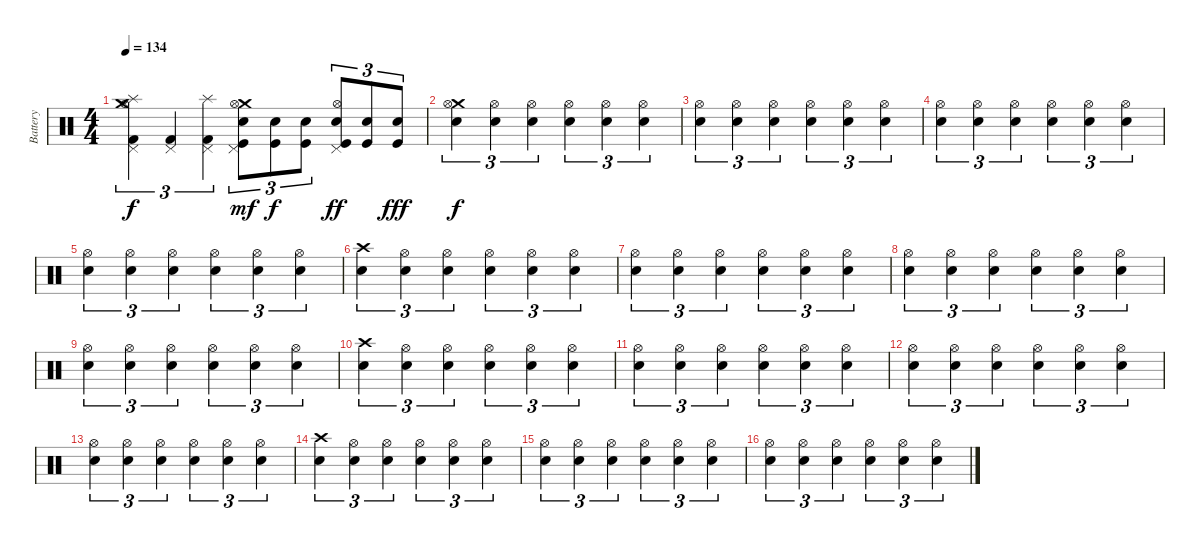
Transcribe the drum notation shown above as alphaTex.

\track ("Battery" "Battery") {instrument percussion}
\staff {score}
\articulation defaults
\ts (4 4)
\tempo 134
\clef neutral
\ks c
("Crash medium (hit)" "Pedal Hi-Hat (hit)" "Hi-Hat (open)" "Kick (hit) 2" "Splash (hit)").4{tu (3 2) dy f} ("Pedal Hi-Hat (hit)" "Kick (hit) 2").4{tu (3 2)} ("Pedal Hi-Hat (hit)" "Kick (hit) 2" "Splash (hit)").4{tu (3 2)} ("Crash medium (hit)" "Pedal Hi-Hat (hit)" "Kick (hit)" "Hi-Hat (open)" "Electric Snare (hit)").8{tu (3 2) dy mf} ("Kick (hit)" "Electric Snare (hit)").8{tu (3 2) dy f} ("Kick (hit)" "Electric Snare (hit)").8{tu (3 2)} ("Pedal Hi-Hat (hit)" "Kick (hit)" "Hi-Hat (open)" "Electric Snare (hit)").8{tu (3 2) dy ff} ("Kick (hit)" "Electric Snare (hit)").8{tu (3 2)} ("Kick (hit)" "Electric Snare (hit)").8{tu (3 2) dy fff} |
("Electric Snare (hit)" "Crash medium (hit)" "Hi-Hat (open)").4{tu (3 2) dy f} ("Electric Snare (hit)" "Hi-Hat (open)").4{tu (3 2)} ("Electric Snare (hit)" "Hi-Hat (open)").4{tu (3 2)} ("Electric Snare (hit)" "Hi-Hat (open)").4{tu (3 2)} ("Electric Snare (hit)" "Hi-Hat (open)").4{tu (3 2)} ("Electric Snare (hit)" "Hi-Hat (open)").4{tu (3 2)} |
("Electric Snare (hit)" "Hi-Hat (open)").4{tu (3 2)} ("Electric Snare (hit)" "Hi-Hat (open)").4{tu (3 2)} ("Electric Snare (hit)" "Hi-Hat (open)").4{tu (3 2)} ("Electric Snare (hit)" "Hi-Hat (open)").4{tu (3 2)} ("Electric Snare (hit)" "Hi-Hat (open)").4{tu (3 2)} ("Electric Snare (hit)" "Hi-Hat (open)").4{tu (3 2)} |
("Electric Snare (hit)" "Hi-Hat (open)").4{tu (3 2)} ("Electric Snare (hit)" "Hi-Hat (open)").4{tu (3 2)} ("Electric Snare (hit)" "Hi-Hat (open)").4{tu (3 2)} ("Electric Snare (hit)" "Hi-Hat (open)").4{tu (3 2)} ("Electric Snare (hit)" "Hi-Hat (open)").4{tu (3 2)} ("Electric Snare (hit)" "Hi-Hat (open)").4{tu (3 2)} |
("Electric Snare (hit)" "Hi-Hat (open)").4{tu (3 2)} ("Electric Snare (hit)" "Hi-Hat (open)").4{tu (3 2)} ("Electric Snare (hit)" "Hi-Hat (open)").4{tu (3 2)} ("Electric Snare (hit)" "Hi-Hat (open)").4{tu (3 2)} ("Electric Snare (hit)" "Hi-Hat (open)").4{tu (3 2)} ("Electric Snare (hit)" "Hi-Hat (open)").4{tu (3 2)} |
("Electric Snare (hit)" "Crash high (hit)").4{tu (3 2)} ("Electric Snare (hit)" "Hi-Hat (open)").4{tu (3 2)} ("Electric Snare (hit)" "Hi-Hat (open)").4{tu (3 2)} ("Electric Snare (hit)" "Hi-Hat (open)").4{tu (3 2)} ("Electric Snare (hit)" "Hi-Hat (open)").4{tu (3 2)} ("Electric Snare (hit)" "Hi-Hat (open)").4{tu (3 2)} |
("Electric Snare (hit)" "Hi-Hat (open)").4{tu (3 2)} ("Electric Snare (hit)" "Hi-Hat (open)").4{tu (3 2)} ("Electric Snare (hit)" "Hi-Hat (open)").4{tu (3 2)} ("Electric Snare (hit)" "Hi-Hat (open)").4{tu (3 2)} ("Electric Snare (hit)" "Hi-Hat (open)").4{tu (3 2)} ("Electric Snare (hit)" "Hi-Hat (open)").4{tu (3 2)} |
("Electric Snare (hit)" "Hi-Hat (open)").4{tu (3 2)} ("Electric Snare (hit)" "Hi-Hat (open)").4{tu (3 2)} ("Electric Snare (hit)" "Hi-Hat (open)").4{tu (3 2)} ("Electric Snare (hit)" "Hi-Hat (open)").4{tu (3 2)} ("Electric Snare (hit)" "Hi-Hat (open)").4{tu (3 2)} ("Electric Snare (hit)" "Hi-Hat (open)").4{tu (3 2)} |
("Electric Snare (hit)" "Hi-Hat (open)").4{tu (3 2)} ("Electric Snare (hit)" "Hi-Hat (open)").4{tu (3 2)} ("Electric Snare (hit)" "Hi-Hat (open)").4{tu (3 2)} ("Electric Snare (hit)" "Hi-Hat (open)").4{tu (3 2)} ("Electric Snare (hit)" "Hi-Hat (open)").4{tu (3 2)} ("Electric Snare (hit)" "Hi-Hat (open)").4{tu (3 2)} |
("Electric Snare (hit)" "Crash high (hit)").4{tu (3 2)} ("Electric Snare (hit)" "Hi-Hat (open)").4{tu (3 2)} ("Electric Snare (hit)" "Hi-Hat (open)").4{tu (3 2)} ("Electric Snare (hit)" "Hi-Hat (open)").4{tu (3 2)} ("Electric Snare (hit)" "Hi-Hat (open)").4{tu (3 2)} ("Electric Snare (hit)" "Hi-Hat (open)").4{tu (3 2)} |
("Electric Snare (hit)" "Hi-Hat (open)").4{tu (3 2)} ("Electric Snare (hit)" "Hi-Hat (open)").4{tu (3 2)} ("Electric Snare (hit)" "Hi-Hat (open)").4{tu (3 2)} ("Electric Snare (hit)" "Hi-Hat (open)").4{tu (3 2)} ("Electric Snare (hit)" "Hi-Hat (open)").4{tu (3 2)} ("Electric Snare (hit)" "Hi-Hat (open)").4{tu (3 2)} |
("Electric Snare (hit)" "Hi-Hat (open)").4{tu (3 2)} ("Electric Snare (hit)" "Hi-Hat (open)").4{tu (3 2)} ("Electric Snare (hit)" "Hi-Hat (open)").4{tu (3 2)} ("Electric Snare (hit)" "Hi-Hat (open)").4{tu (3 2)} ("Electric Snare (hit)" "Hi-Hat (open)").4{tu (3 2)} ("Electric Snare (hit)" "Hi-Hat (open)").4{tu (3 2)} |
("Electric Snare (hit)" "Hi-Hat (open)").4{tu (3 2)} ("Electric Snare (hit)" "Hi-Hat (open)").4{tu (3 2)} ("Electric Snare (hit)" "Hi-Hat (open)").4{tu (3 2)} ("Electric Snare (hit)" "Hi-Hat (open)").4{tu (3 2)} ("Electric Snare (hit)" "Hi-Hat (open)").4{tu (3 2)} ("Electric Snare (hit)" "Hi-Hat (open)").4{tu (3 2)} |
("Electric Snare (hit)" "Crash high (hit)").4{tu (3 2)} ("Electric Snare (hit)" "Hi-Hat (open)").4{tu (3 2)} ("Electric Snare (hit)" "Hi-Hat (open)").4{tu (3 2)} ("Electric Snare (hit)" "Hi-Hat (open)").4{tu (3 2)} ("Electric Snare (hit)" "Hi-Hat (open)").4{tu (3 2)} ("Electric Snare (hit)" "Hi-Hat (open)").4{tu (3 2)} |
("Electric Snare (hit)" "Hi-Hat (open)").4{tu (3 2)} ("Electric Snare (hit)" "Hi-Hat (open)").4{tu (3 2)} ("Electric Snare (hit)" "Hi-Hat (open)").4{tu (3 2)} ("Electric Snare (hit)" "Hi-Hat (open)").4{tu (3 2)} ("Electric Snare (hit)" "Hi-Hat (open)").4{tu (3 2)} ("Electric Snare (hit)" "Hi-Hat (open)").4{tu (3 2)} |
("Electric Snare (hit)" "Hi-Hat (open)").4{tu (3 2)} ("Electric Snare (hit)" "Hi-Hat (open)").4{tu (3 2)} ("Electric Snare (hit)" "Hi-Hat (open)").4{tu (3 2)} ("Electric Snare (hit)" "Hi-Hat (open)").4{tu (3 2)} ("Electric Snare (hit)" "Hi-Hat (open)").4{tu (3 2)} ("Electric Snare (hit)" "Hi-Hat (open)").4{tu (3 2)}
